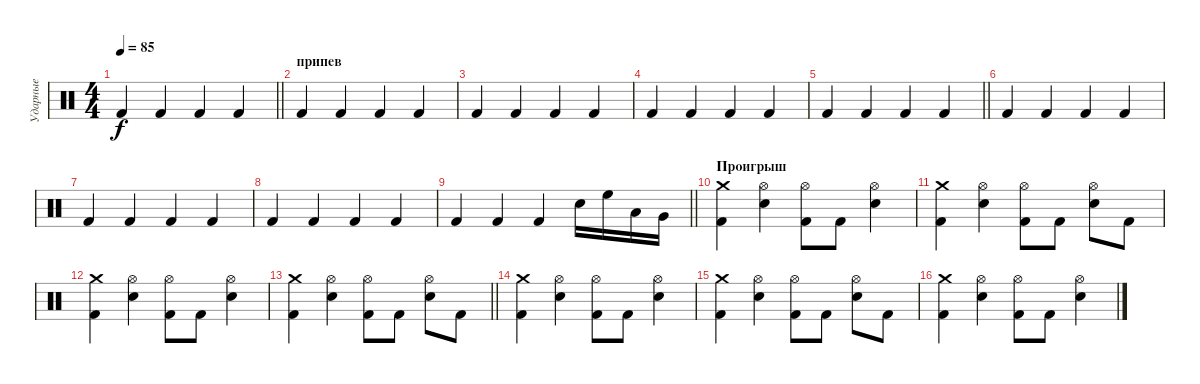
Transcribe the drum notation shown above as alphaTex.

\track ("Ударные" "Ударные") {instrument percussion}
\staff {score}
\articulation defaults
\ts (4 4)
\tempo 85
\clef neutral
\barLineRight lightlight
\ks c "Kick (hit) 2".4{dy f} "Kick (hit) 2".4 "Kick (hit) 2".4 "Kick (hit) 2".4
|
\section ("" "припев")
"Kick (hit) 2".4 "Kick (hit) 2".4 "Kick (hit) 2".4 "Kick (hit) 2".4 |
"Kick (hit) 2".4 "Kick (hit) 2".4 "Kick (hit) 2".4 "Kick (hit) 2".4 |
"Kick (hit) 2".4 "Kick (hit) 2".4 "Kick (hit) 2".4 "Kick (hit) 2".4 |
\barLineRight lightlight "Kick (hit) 2".4 "Kick (hit) 2".4 "Kick (hit) 2".4 "Kick (hit) 2".4
|
"Kick (hit) 2".4 "Kick (hit) 2".4 "Kick (hit) 2".4 "Kick (hit) 2".4 |
"Kick (hit) 2".4 "Kick (hit) 2".4 "Kick (hit) 2".4 "Kick (hit) 2".4 |
"Kick (hit) 2".4 "Kick (hit) 2".4 "Kick (hit) 2".4 "Kick (hit) 2".4 |
\barLineRight lightlight "Kick (hit) 2".4 "Kick (hit) 2".4 "Kick (hit) 2".4 "Snare (hit) 2".16 "High Floor Tom (hit)".16 "Low Tom (hit)".16 "Very Low Tom (hit)".16
|
\section ("" "Проигрыш")
("Crash medium (hit)" "Kick (hit) 2").4 ("Hi-Hat (open)" "Snare (hit) 2").4 ("Hi-Hat (open)" "Kick (hit) 2").8 "Kick (hit) 2".8 ("Hi-Hat (open)" "Snare (hit) 2").4 |
("Crash medium (hit)" "Kick (hit) 2").4 ("Hi-Hat (open)" "Snare (hit) 2").4 ("Hi-Hat (open)" "Kick (hit) 2").8 "Kick (hit) 2".8 ("Hi-Hat (open)" "Snare (hit) 2").8 "Kick (hit) 2".8 |
("Crash medium (hit)" "Kick (hit) 2").4 ("Hi-Hat (open)" "Snare (hit) 2").4 ("Hi-Hat (open)" "Kick (hit) 2").8 "Kick (hit) 2".8 ("Hi-Hat (open)" "Snare (hit) 2").4 |
\barLineRight lightlight
("Crash medium (hit)" "Kick (hit) 2").4 ("Hi-Hat (open)" "Snare (hit) 2").4 ("Hi-Hat (open)" "Kick (hit) 2").8 "Kick (hit) 2".8 ("Hi-Hat (open)" "Snare (hit) 2").8 "Kick (hit) 2".8 |
("Crash medium (hit)" "Kick (hit) 2").4 ("Hi-Hat (open)" "Snare (hit) 2").4 ("Hi-Hat (open)" "Kick (hit) 2").8 "Kick (hit) 2".8 ("Hi-Hat (open)" "Snare (hit) 2").4 |
("Crash medium (hit)" "Kick (hit) 2").4 ("Hi-Hat (open)" "Snare (hit) 2").4 ("Hi-Hat (open)" "Kick (hit) 2").8 "Kick (hit) 2".8 ("Hi-Hat (open)" "Snare (hit) 2").8 "Kick (hit) 2".8 |
("Crash medium (hit)" "Kick (hit) 2").4 ("Hi-Hat (open)" "Snare (hit) 2").4 ("Hi-Hat (open)" "Kick (hit) 2").8 "Kick (hit) 2".8 ("Hi-Hat (open)" "Snare (hit) 2").4
